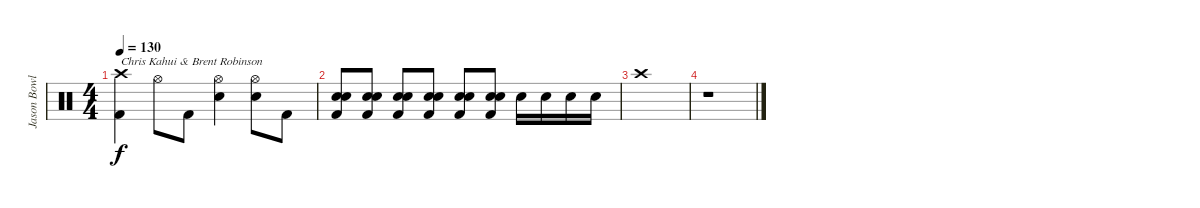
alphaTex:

\track ("Jason Bowld" "Jason Bowl") {instrument percussion}
\staff {score}
\articulation defaults
\ts (4 4)
\tempo 130
\clef neutral
\ks c
("Crash high (hit)" "Kick (hit) 2").4{txt "Chris Kahui & Brent Robinson" dy f} "Hi-Hat (open)".8 "Kick (hit) 2".8 ("Hi-Hat (open)" "Snare (hit) 2").4 ("Hi-Hat (open)" "Snare (hit) 2").8 "Kick (hit) 2".8 |
("Snare (hit) 2" "Snare (hit) 2" "Kick (hit) 2").8 ("Snare (hit) 2" "Snare (hit) 2" "Kick (hit) 2").8 ("Snare (hit) 2" "Snare (hit) 2" "Kick (hit) 2").8 ("Snare (hit) 2" "Snare (hit) 2" "Kick (hit) 2").8 ("Snare (hit) 2" "Snare (hit) 2" "Kick (hit) 2").8 ("Snare (hit) 2" "Snare (hit) 2" "Kick (hit) 2").8 "Snare (hit) 2".16 "Snare (hit) 2".16 "Snare (hit) 2".16 "Snare (hit) 2".16 |
"Crash high (hit)".1 |
r.1
